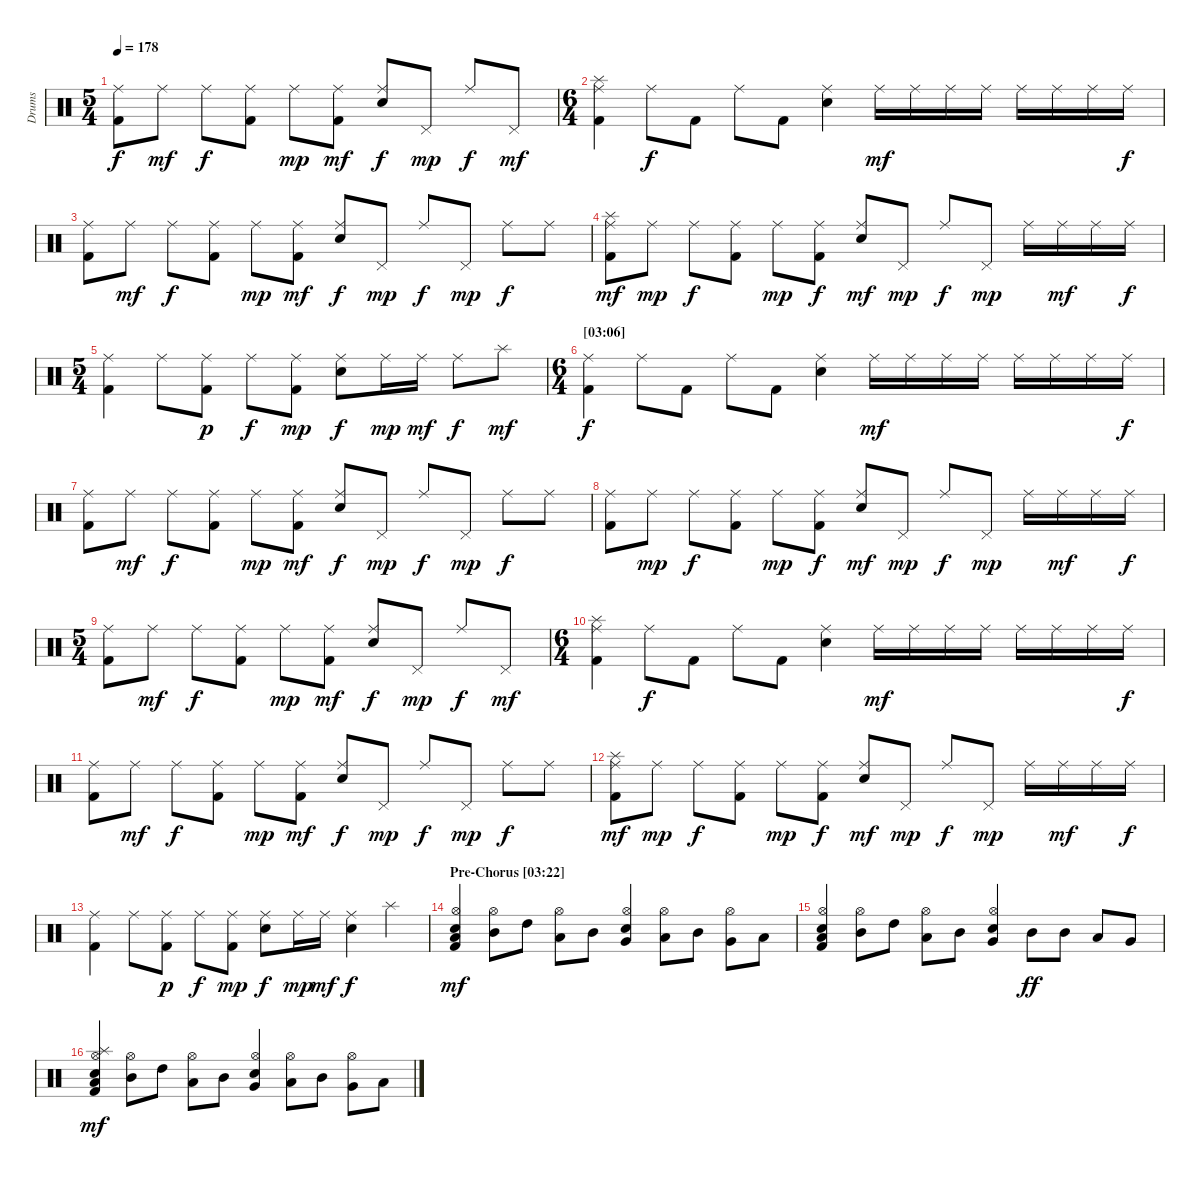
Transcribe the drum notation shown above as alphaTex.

\track ("Drums" "Drums") {instrument percussion}
\staff {score}
\articulation defaults
\ts (5 4)
\tempo 178
\clef neutral
\ks c
("Ride (middle)" "Kick (hit) 2").8{dy f} "Ride (middle)".8{dy mf} "Ride (middle)".8{dy f} ("Ride (middle)" "Kick (hit) 2").8 "Ride (middle)".8{dy mp} ("Ride (middle)" "Kick (hit) 2").8{dy mf} ("Ride (middle)" "Electric Snare (hit)").8{dy f} "Pedal Hi-Hat (hit)".8{dy mp} "Ride (middle)".8{dy f} "Pedal Hi-Hat (hit)".8{dy mf} |
\ts (6 4)
("Ride (middle)" "Splash (hit)" "Kick (hit) 2").4 "Ride (middle)".8{dy f} "Kick (hit) 2".8 "Ride (middle)".8 "Kick (hit) 2".8 ("Ride (middle)" "Electric Snare (hit)").4 "Ride (middle)".16{dy mf} "Ride (middle)".16 "Ride (middle)".16 "Ride (middle)".16 "Ride (middle)".16 "Ride (middle)".16 "Ride (middle)".16 "Ride (middle)".16{dy f} |
("Ride (middle)" "Kick (hit) 2").8 "Ride (middle)".8{dy mf} "Ride (middle)".8{dy f} ("Ride (middle)" "Kick (hit) 2").8 "Ride (middle)".8{dy mp} ("Ride (middle)" "Kick (hit) 2").8{dy mf} ("Ride (middle)" "Electric Snare (hit)").8{dy f} "Pedal Hi-Hat (hit)".8{dy mp} "Ride (middle)".8{dy f} "Pedal Hi-Hat (hit)".8{dy mp} "Ride (middle)".8{dy f} "Ride (middle)".8 |
("Ride (middle)" "Splash (hit)" "Kick (hit) 2").8{dy mf} "Ride (middle)".8{dy mp} "Ride (middle)".8{dy f} ("Ride (middle)" "Kick (hit) 2").8 "Ride (middle)".8{dy mp} ("Ride (middle)" "Kick (hit) 2").8{dy f} ("Ride (middle)" "Electric Snare (hit)").8{dy mf} "Pedal Hi-Hat (hit)".8{dy mp} "Ride (middle)".8{dy f} "Pedal Hi-Hat (hit)".8{dy mp} "Ride (middle)".16 "Ride (middle)".16{dy mf} "Ride (middle)".16 "Ride (middle)".16{dy f} |
\ts (5 4)
("Ride (middle)" "Kick (hit) 2").4 "Ride (middle)".8 ("Ride (middle)" "Kick (hit) 2").8{dy p} "Ride (middle)".8{dy f} ("Ride (middle)" "Kick (hit) 2").8{dy mp} ("Ride (middle)" "Electric Snare (hit)").8{dy f} "Ride (middle)".16{dy mp} "Ride (middle)".16{dy mf} "Ride (middle)".8{dy f} "Splash (hit)".8{dy mf} |
\ts (6 4)
\section ("" "[03:06]")
("Ride (middle)" "Kick (hit) 2").4{dy f} "Ride (middle)".8 "Kick (hit) 2".8 "Ride (middle)".8 "Kick (hit) 2".8 ("Ride (middle)" "Electric Snare (hit)").4 "Ride (middle)".16{dy mf} "Ride (middle)".16 "Ride (middle)".16 "Ride (middle)".16 "Ride (middle)".16 "Ride (middle)".16 "Ride (middle)".16 "Ride (middle)".16{dy f} |
("Ride (middle)" "Kick (hit) 2").8 "Ride (middle)".8{dy mf} "Ride (middle)".8{dy f} ("Ride (middle)" "Kick (hit) 2").8 "Ride (middle)".8{dy mp} ("Ride (middle)" "Kick (hit) 2").8{dy mf} ("Ride (middle)" "Electric Snare (hit)").8{dy f} "Pedal Hi-Hat (hit)".8{dy mp} "Ride (middle)".8{dy f} "Pedal Hi-Hat (hit)".8{dy mp} "Ride (middle)".8{dy f} "Ride (middle)".8 |
("Ride (middle)" "Kick (hit) 2").8 "Ride (middle)".8{dy mp} "Ride (middle)".8{dy f} ("Ride (middle)" "Kick (hit) 2").8 "Ride (middle)".8{dy mp} ("Ride (middle)" "Kick (hit) 2").8{dy f} ("Ride (middle)" "Electric Snare (hit)").8{dy mf} "Pedal Hi-Hat (hit)".8{dy mp} "Ride (middle)".8{dy f} "Pedal Hi-Hat (hit)".8{dy mp} "Ride (middle)".16 "Ride (middle)".16{dy mf} "Ride (middle)".16 "Ride (middle)".16{dy f} |
\ts (5 4)
("Ride (middle)" "Kick (hit) 2").8 "Ride (middle)".8{dy mf} "Ride (middle)".8{dy f} ("Ride (middle)" "Kick (hit) 2").8 "Ride (middle)".8{dy mp} ("Ride (middle)" "Kick (hit) 2").8{dy mf} ("Ride (middle)" "Electric Snare (hit)").8{dy f} "Pedal Hi-Hat (hit)".8{dy mp} "Ride (middle)".8{dy f} "Pedal Hi-Hat (hit)".8{dy mf} |
\ts (6 4)
("Ride (middle)" "Splash (hit)" "Kick (hit) 2").4 "Ride (middle)".8{dy f} "Kick (hit) 2".8 "Ride (middle)".8 "Kick (hit) 2".8 ("Ride (middle)" "Electric Snare (hit)").4 "Ride (middle)".16{dy mf} "Ride (middle)".16 "Ride (middle)".16 "Ride (middle)".16 "Ride (middle)".16 "Ride (middle)".16 "Ride (middle)".16 "Ride (middle)".16{dy f} |
("Ride (middle)" "Kick (hit) 2").8 "Ride (middle)".8{dy mf} "Ride (middle)".8{dy f} ("Ride (middle)" "Kick (hit) 2").8 "Ride (middle)".8{dy mp} ("Ride (middle)" "Kick (hit) 2").8{dy mf} ("Ride (middle)" "Electric Snare (hit)").8{dy f} "Pedal Hi-Hat (hit)".8{dy mp} "Ride (middle)".8{dy f} "Pedal Hi-Hat (hit)".8{dy mp} "Ride (middle)".8{dy f} "Ride (middle)".8 |
("Ride (middle)" "Splash (hit)" "Kick (hit) 2").8{dy mf} "Ride (middle)".8{dy mp} "Ride (middle)".8{dy f} ("Ride (middle)" "Kick (hit) 2").8 "Ride (middle)".8{dy mp} ("Ride (middle)" "Kick (hit) 2").8{dy f} ("Ride (middle)" "Electric Snare (hit)").8{dy mf} "Pedal Hi-Hat (hit)".8{dy mp} "Ride (middle)".8{dy f} "Pedal Hi-Hat (hit)".8{dy mp} "Ride (middle)".16 "Ride (middle)".16{dy mf} "Ride (middle)".16 "Ride (middle)".16{dy f} |
("Ride (middle)" "Kick (hit) 2").4 "Ride (middle)".8 ("Ride (middle)" "Kick (hit) 2").8{dy p} "Ride (middle)".8{dy f} ("Ride (middle)" "Kick (hit) 2").8{dy mp} ("Ride (middle)" "Electric Snare (hit)").8{dy f} "Ride (middle)".16{dy mp} "Ride (middle)".16{dy mf} ("Ride (middle)" "Electric Snare (hit)").4{dy f} "Splash (hit)".4 |
\section ("" "Pre-Chorus [03:22]")
("Hi-Hat (open)" "Low Tom (hit)" "Electric Snare (hit)" "Kick (hit) 2").4{dy mf} ("Hi-Hat (open)" "Mid Tom (hit)").8 "High Tom (hit)".8 ("Hi-Hat (open)" "Low Tom (hit)").8 "Mid Tom (hit)".8 ("Hi-Hat (open)" "Very Low Tom (hit)" "Electric Snare (hit)").4 ("Hi-Hat (open)" "Low Tom (hit)").8 "Mid Tom (hit)".8 ("Hi-Hat (open)" "Very Low Tom (hit)").8 "Low Tom (hit)".8 |
("Hi-Hat (open)" "Low Floor Tom (hit)" "Electric Snare (hit)" "Kick (hit) 2").4 ("Hi-Hat (open)" "Mid Tom (hit)").8 "High Tom (hit)".8 ("Hi-Hat (open)" "Low Tom (hit)").8 "Mid Tom (hit)".8 ("Hi-Hat (open)" "Very Low Tom (hit)" "Electric Snare (hit)").4 "Mid Tom (hit)".8{dy ff} "Mid Tom (hit)".8 "Low Tom (hit)".8 "Very Low Tom (hit)".8 |
("Hi-Hat (open)" "Splash (hit)" "Low Tom (hit)" "Electric Snare (hit)" "Kick (hit) 2").4{dy mf} ("Hi-Hat (open)" "Mid Tom (hit)").8 "High Tom (hit)".8 ("Hi-Hat (open)" "Low Tom (hit)").8 "Mid Tom (hit)".8 ("Hi-Hat (open)" "Very Low Tom (hit)" "Electric Snare (hit)").4 ("Hi-Hat (open)" "Low Tom (hit)").8 "Mid Tom (hit)".8 ("Hi-Hat (open)" "Very Low Tom (hit)").8 "Low Tom (hit)".8
